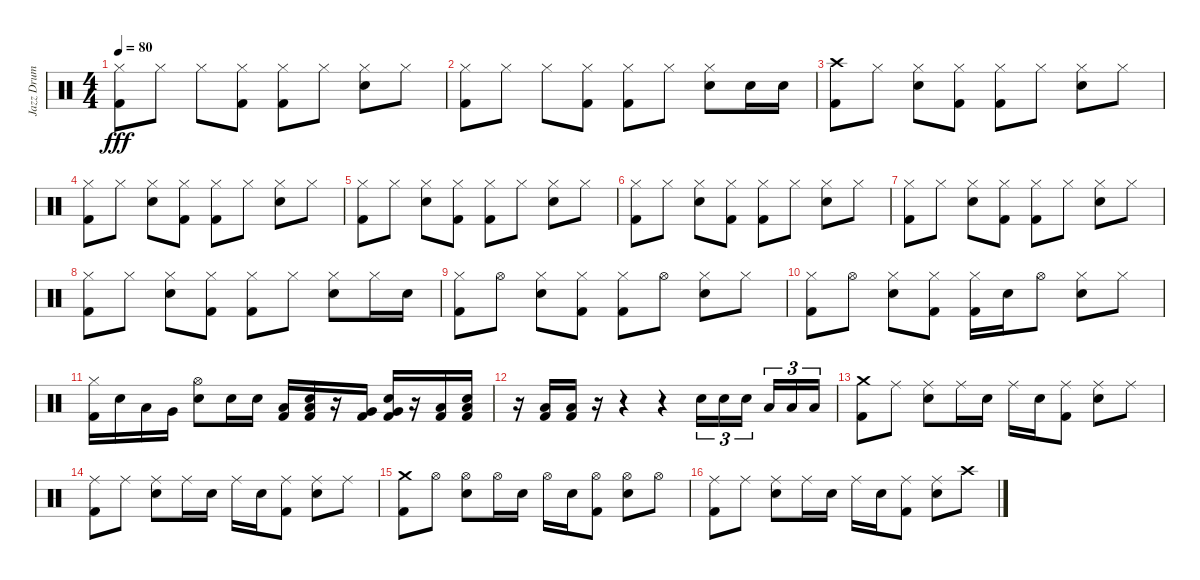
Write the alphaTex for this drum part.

\track ("Jazz Drum" "Jazz Drum") {instrument percussion}
\staff {score}
\articulation defaults
\ts (4 4)
\tempo 80
\clef neutral
\ks c
("Hi-Hat (closed)" "Kick (hit) 2").8{dy fff} "Hi-Hat (closed)".8 "Hi-Hat (closed)".8 ("Hi-Hat (closed)" "Kick (hit) 2").8 ("Hi-Hat (closed)" "Kick (hit) 2").8 "Hi-Hat (closed)".8 ("Hi-Hat (closed)" "Electric Snare (hit)").8 "Hi-Hat (closed)".8 |
("Hi-Hat (closed)" "Kick (hit) 2").8 "Hi-Hat (closed)".8 "Hi-Hat (closed)".8 ("Hi-Hat (closed)" "Kick (hit) 2").8 ("Hi-Hat (closed)" "Kick (hit) 2").8 "Hi-Hat (closed)".8 ("Hi-Hat (closed)" "Electric Snare (hit)").8 "Electric Snare (hit)".16 "Electric Snare (hit)".16 |
("Crash high (hit)" "Kick (hit) 2").8 "Hi-Hat (closed)".8 ("Hi-Hat (closed)" "Electric Snare (hit)").8 ("Hi-Hat (closed)" "Kick (hit) 2").8 ("Hi-Hat (closed)" "Kick (hit) 2").8 "Hi-Hat (closed)".8 ("Hi-Hat (closed)" "Electric Snare (hit)").8 "Hi-Hat (closed)".8 |
("Hi-Hat (closed)" "Kick (hit) 2").8 "Hi-Hat (closed)".8 ("Hi-Hat (closed)" "Electric Snare (hit)").8 ("Hi-Hat (closed)" "Kick (hit) 2").8 ("Hi-Hat (closed)" "Kick (hit) 2").8 "Hi-Hat (closed)".8 ("Hi-Hat (closed)" "Electric Snare (hit)").8 "Hi-Hat (closed)".8 |
("Hi-Hat (closed)" "Kick (hit) 2").8 "Hi-Hat (closed)".8 ("Hi-Hat (closed)" "Electric Snare (hit)").8 ("Hi-Hat (closed)" "Kick (hit) 2").8 ("Hi-Hat (closed)" "Kick (hit) 2").8 "Hi-Hat (closed)".8 ("Hi-Hat (closed)" "Electric Snare (hit)").8 "Hi-Hat (closed)".8 |
("Hi-Hat (closed)" "Kick (hit) 2").8 "Hi-Hat (closed)".8 ("Hi-Hat (closed)" "Electric Snare (hit)").8 ("Hi-Hat (closed)" "Kick (hit) 2").8 ("Hi-Hat (closed)" "Kick (hit) 2").8 "Hi-Hat (closed)".8 ("Hi-Hat (closed)" "Electric Snare (hit)").8 "Hi-Hat (closed)".8 |
("Hi-Hat (closed)" "Kick (hit) 2").8 "Hi-Hat (closed)".8 ("Hi-Hat (closed)" "Electric Snare (hit)").8 ("Hi-Hat (closed)" "Kick (hit) 2").8 ("Hi-Hat (closed)" "Kick (hit) 2").8 "Hi-Hat (closed)".8 ("Hi-Hat (closed)" "Electric Snare (hit)").8 "Hi-Hat (closed)".8 |
("Hi-Hat (closed)" "Kick (hit) 2").8 "Hi-Hat (closed)".8 ("Hi-Hat (closed)" "Electric Snare (hit)").8 ("Hi-Hat (closed)" "Kick (hit) 2").8 ("Hi-Hat (closed)" "Kick (hit) 2").8 "Hi-Hat (closed)".8 ("Hi-Hat (closed)" "Electric Snare (hit)").8 "Hi-Hat (closed)".16 "Electric Snare (hit)".16 |
("Hi-Hat (closed)" "Kick (hit) 2").8 "Hi-Hat (open)".8 ("Hi-Hat (closed)" "Electric Snare (hit)").8 ("Hi-Hat (closed)" "Kick (hit) 2").8 ("Hi-Hat (closed)" "Kick (hit) 2").8 "Hi-Hat (open)".8 ("Hi-Hat (closed)" "Electric Snare (hit)").8 "Hi-Hat (closed)".8 |
("Hi-Hat (closed)" "Kick (hit) 2").8 "Hi-Hat (open)".8 ("Hi-Hat (closed)" "Electric Snare (hit)").8 ("Hi-Hat (closed)" "Kick (hit) 2").8 ("Hi-Hat (closed)" "Kick (hit) 2").16 "Electric Snare (hit)".16 "Hi-Hat (open)".8 ("Hi-Hat (closed)" "Electric Snare (hit)").8 "Hi-Hat (closed)".8 |
("Hi-Hat (closed)" "Kick (hit) 2").16 "Electric Snare (hit)".16 "Low Tom (hit)".16 "Very Low Tom (hit)".16 ("Hi-Hat (open)" "Electric Snare (hit)").8 "Electric Snare (hit)".16 "Electric Snare (hit)".16 ("Low Tom (hit)" "Kick (hit) 2").16 ("Electric Snare (hit)" "Low Tom (hit)" "Kick (hit) 2").16 r.16 ("Very Low Tom (hit)" "Kick (hit) 2").16 ("Electric Snare (hit)" "Very Low Tom (hit)" "Kick (hit) 2").16 r.16 ("Low Floor Tom (hit)" "Kick (hit) 2").16 ("Electric Snare (hit)" "Low Floor Tom (hit)" "Kick (hit) 2").16 |
r.16 ("Low Floor Tom (hit)" "Kick (hit) 2").16 ("Low Floor Tom (hit)" "Kick (hit) 2").16 r.16 r.4 r.4 "Electric Snare (hit)".16{tu (3 2)} "Electric Snare (hit)".16{tu (3 2)} "Electric Snare (hit)".16{tu (3 2) beam splitsecondary} "Low Tom (hit)".16{tu (3 2)} "Low Tom (hit)".16{tu (3 2)} "Low Tom (hit)".16{tu (3 2)} |
("Crash medium (hit)" "Kick (hit) 2").8 "Ride (middle)".8 ("Ride (middle)" "Electric Snare (hit)").8 "Ride (middle)".16 "Electric Snare (hit)".16 "Ride (middle)".16 "Electric Snare (hit)".16 ("Ride (middle)" "Kick (hit) 2").8 ("Ride (middle)" "Electric Snare (hit)").8 "Ride (middle)".8 |
("Ride (middle)" "Kick (hit) 2").8 "Ride (middle)".8 ("Ride (middle)" "Electric Snare (hit)").8 "Ride (middle)".16 "Electric Snare (hit)".16 "Ride (middle)".16 "Electric Snare (hit)".16 ("Ride (middle)" "Kick (hit) 2").8 ("Ride (middle)" "Electric Snare (hit)").8 "Ride (middle)".8 |
("Crash medium (hit)" "Kick (hit) 2").8 "Hi-Hat (open)".8 ("Hi-Hat (open)" "Electric Snare (hit)").8 "Hi-Hat (open)".16 "Electric Snare (hit)".16 "Hi-Hat (open)".16 "Electric Snare (hit)".16 ("Hi-Hat (open)" "Kick (hit) 2").8 ("Hi-Hat (open)" "Electric Snare (hit)").8 "Hi-Hat (open)".8 |
("Ride (middle)" "Kick (hit) 2").8 "Ride (middle)".8 ("Ride (middle)" "Electric Snare (hit)").8 "Ride (middle)".16 "Electric Snare (hit)".16 "Ride (middle)".16 "Electric Snare (hit)".16 ("Ride (middle)" "Kick (hit) 2").8 ("Ride (middle)" "Electric Snare (hit)").8 "Crash high (hit)".8
